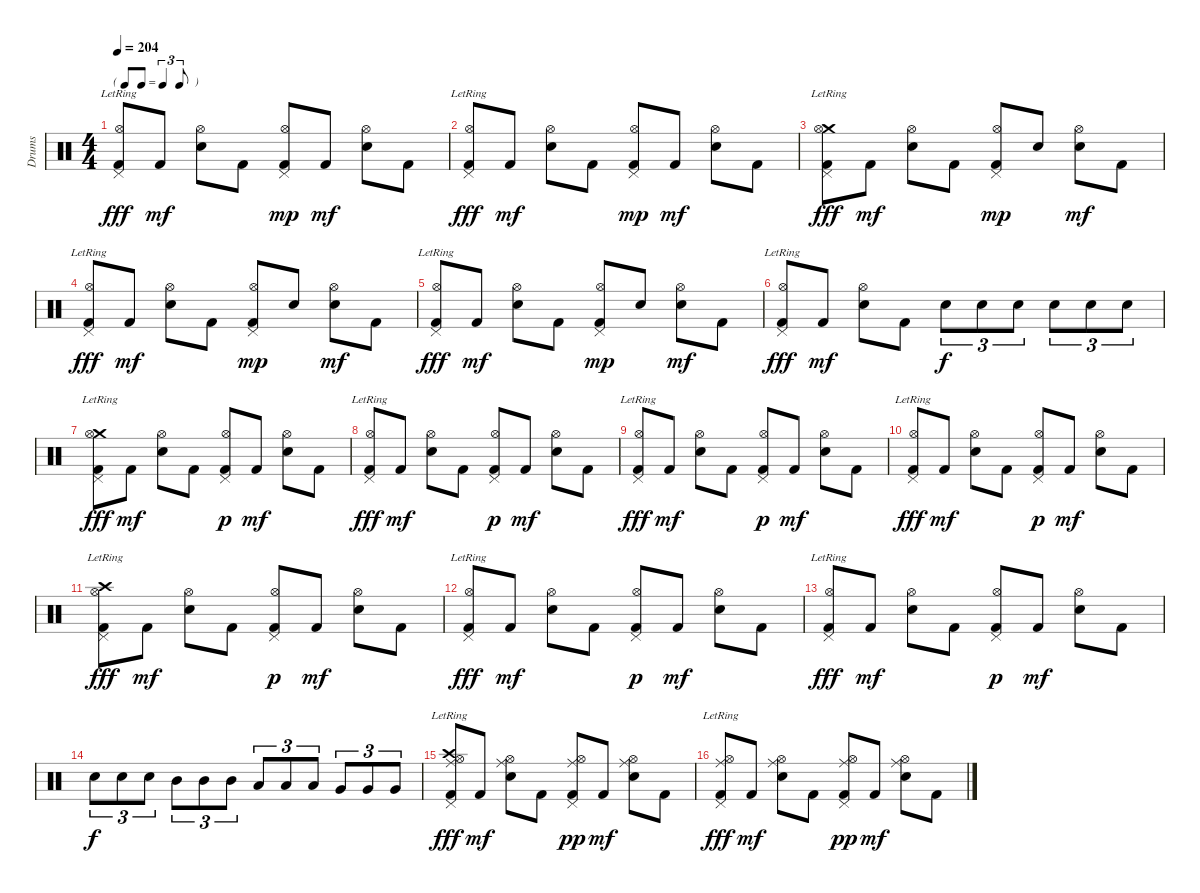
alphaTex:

\track ("Drums" "Drums") {instrument percussion}
\staff {score}
\articulation defaults
\ts (4 4)
\tf triplet8th
\tempo 204
\clef neutral
\ks c
("Pedal Hi-Hat (hit)" "Hi-Hat (open)" "Kick (hit) 2"{lr}).8{dy fff} "Kick (hit) 2".8{dy mf} ("Hi-Hat (open)" "Electric Snare (hit)").8 "Kick (hit) 2".8 ("Pedal Hi-Hat (hit)" "Hi-Hat (open)" "Kick (hit) 2").8{dy mp} "Kick (hit) 2".8{dy mf} ("Hi-Hat (open)" "Electric Snare (hit)").8 "Kick (hit) 2".8 |
("Pedal Hi-Hat (hit)" "Hi-Hat (open)" "Kick (hit) 2"{lr}).8{dy fff} "Kick (hit) 2".8{dy mf} ("Hi-Hat (open)" "Electric Snare (hit)").8 "Kick (hit) 2".8 ("Pedal Hi-Hat (hit)" "Hi-Hat (open)" "Kick (hit) 2").8{dy mp} "Kick (hit) 2".8{dy mf} ("Hi-Hat (open)" "Electric Snare (hit)").8 "Kick (hit) 2".8 |
("Crash medium (hit)" "Pedal Hi-Hat (hit)" "Hi-Hat (open)" "Kick (hit) 2"{lr}).8{dy fff} "Kick (hit) 2".8{dy mf} ("Hi-Hat (open)" "Electric Snare (hit)").8 "Kick (hit) 2".8 ("Pedal Hi-Hat (hit)" "Hi-Hat (open)" "Kick (hit) 2").8{dy mp} "Electric Snare (hit)".8 ("Hi-Hat (open)" "Electric Snare (hit)").8{dy mf} "Kick (hit) 2".8 |
("Pedal Hi-Hat (hit)" "Hi-Hat (open)" "Kick (hit) 2"{lr}).8{dy fff} "Kick (hit) 2".8{dy mf} ("Hi-Hat (open)" "Electric Snare (hit)").8 "Kick (hit) 2".8 ("Pedal Hi-Hat (hit)" "Hi-Hat (open)" "Kick (hit) 2").8{dy mp} "Electric Snare (hit)".8 ("Hi-Hat (open)" "Electric Snare (hit)").8{dy mf} "Kick (hit) 2".8 |
("Pedal Hi-Hat (hit)" "Hi-Hat (open)" "Kick (hit) 2"{lr}).8{dy fff} "Kick (hit) 2".8{dy mf} ("Hi-Hat (open)" "Electric Snare (hit)").8 "Kick (hit) 2".8 ("Pedal Hi-Hat (hit)" "Hi-Hat (open)" "Kick (hit) 2").8{dy mp} "Electric Snare (hit)".8 ("Hi-Hat (open)" "Electric Snare (hit)").8{dy mf} "Kick (hit) 2".8 |
("Pedal Hi-Hat (hit)" "Hi-Hat (open)" "Kick (hit) 2"{lr}).8{dy fff} "Kick (hit) 2".8{dy mf} ("Hi-Hat (open)" "Electric Snare (hit)").8 "Kick (hit) 2".8 "Electric Snare (hit)".8{tu (3 2) dy f} "Electric Snare (hit)".8{tu (3 2)} "Electric Snare (hit)".8{tu (3 2)} "Electric Snare (hit)".8{tu (3 2)} "Electric Snare (hit)".8{tu (3 2)} "Electric Snare (hit)".8{tu (3 2)} |
("Crash medium (hit)" "Pedal Hi-Hat (hit)" "Hi-Hat (open)" "Kick (hit) 2"{lr}).8{dy fff} "Kick (hit) 2".8{dy mf} ("Hi-Hat (open)" "Electric Snare (hit)").8 "Kick (hit) 2".8 ("Pedal Hi-Hat (hit)" "Hi-Hat (open)" "Kick (hit) 2").8{dy p} "Kick (hit) 2".8{dy mf} ("Hi-Hat (open)" "Electric Snare (hit)").8 "Kick (hit) 2".8 |
("Pedal Hi-Hat (hit)" "Hi-Hat (open)" "Kick (hit) 2"{lr}).8{dy fff} "Kick (hit) 2".8{dy mf} ("Hi-Hat (open)" "Electric Snare (hit)").8 "Kick (hit) 2".8 ("Pedal Hi-Hat (hit)" "Hi-Hat (open)" "Kick (hit) 2").8{dy p} "Kick (hit) 2".8{dy mf} ("Hi-Hat (open)" "Electric Snare (hit)").8 "Kick (hit) 2".8 |
("Pedal Hi-Hat (hit)" "Hi-Hat (open)" "Kick (hit) 2"{lr}).8{dy fff} "Kick (hit) 2".8{dy mf} ("Hi-Hat (open)" "Electric Snare (hit)").8 "Kick (hit) 2".8 ("Pedal Hi-Hat (hit)" "Hi-Hat (open)" "Kick (hit) 2").8{dy p} "Kick (hit) 2".8{dy mf} ("Hi-Hat (open)" "Electric Snare (hit)").8 "Kick (hit) 2".8 |
("Pedal Hi-Hat (hit)" "Hi-Hat (open)" "Kick (hit) 2"{lr}).8{dy fff} "Kick (hit) 2".8{dy mf} ("Hi-Hat (open)" "Electric Snare (hit)").8 "Kick (hit) 2".8 ("Pedal Hi-Hat (hit)" "Hi-Hat (open)" "Kick (hit) 2").8{dy p} "Kick (hit) 2".8{dy mf} ("Hi-Hat (open)" "Electric Snare (hit)").8 "Kick (hit) 2".8 |
("Crash high (hit)" "Pedal Hi-Hat (hit)" "Hi-Hat (open)" "Kick (hit) 2"{lr}).8{dy fff} "Kick (hit) 2".8{dy mf} ("Hi-Hat (open)" "Electric Snare (hit)").8 "Kick (hit) 2".8 ("Pedal Hi-Hat (hit)" "Hi-Hat (open)" "Kick (hit) 2").8{dy p} "Kick (hit) 2".8{dy mf} ("Hi-Hat (open)" "Electric Snare (hit)").8 "Kick (hit) 2".8 |
("Pedal Hi-Hat (hit)" "Hi-Hat (open)" "Kick (hit) 2"{lr}).8{dy fff} "Kick (hit) 2".8{dy mf} ("Hi-Hat (open)" "Electric Snare (hit)").8 "Kick (hit) 2".8 ("Pedal Hi-Hat (hit)" "Hi-Hat (open)" "Kick (hit) 2").8{dy p} "Kick (hit) 2".8{dy mf} ("Hi-Hat (open)" "Electric Snare (hit)").8 "Kick (hit) 2".8 |
("Pedal Hi-Hat (hit)" "Hi-Hat (open)" "Kick (hit) 2"{lr}).8{dy fff} "Kick (hit) 2".8{dy mf} ("Hi-Hat (open)" "Electric Snare (hit)").8 "Kick (hit) 2".8 ("Pedal Hi-Hat (hit)" "Hi-Hat (open)" "Kick (hit) 2").8{dy p} "Kick (hit) 2".8{dy mf} ("Hi-Hat (open)" "Electric Snare (hit)").8 "Kick (hit) 2".8 |
"Electric Snare (hit)".8{tu (3 2) dy f} "Electric Snare (hit)".8{tu (3 2)} "Electric Snare (hit)".8{tu (3 2)} "Mid Tom (hit)".8{tu (3 2)} "Mid Tom (hit)".8{tu (3 2)} "Mid Tom (hit)".8{tu (3 2)} "Low Tom (hit)".8{tu (3 2)} "Low Tom (hit)".8{tu (3 2)} "Low Tom (hit)".8{tu (3 2)} "Very Low Tom (hit)".8{tu (3 2)} "Very Low Tom (hit)".8{tu (3 2)} "Very Low Tom (hit)".8{tu (3 2)} |
("Crash high (hit)" "Ride (middle)" "Pedal Hi-Hat (hit)" "Hi-Hat (open)" "Kick (hit) 2"{lr}).8{dy fff} "Kick (hit) 2".8{dy mf} ("Ride (middle)" "Hi-Hat (open)" "Electric Snare (hit)").8 "Kick (hit) 2".8 ("Ride (middle)" "Pedal Hi-Hat (hit)" "Hi-Hat (open)" "Kick (hit) 2").8{dy pp} "Kick (hit) 2".8{dy mf} ("Ride (middle)" "Hi-Hat (open)" "Electric Snare (hit)").8 "Kick (hit) 2".8 |
("Ride (middle)" "Pedal Hi-Hat (hit)" "Hi-Hat (open)" "Kick (hit) 2"{lr}).8{dy fff} "Kick (hit) 2".8{dy mf} ("Ride (middle)" "Hi-Hat (open)" "Electric Snare (hit)").8 "Kick (hit) 2".8 ("Ride (middle)" "Pedal Hi-Hat (hit)" "Hi-Hat (open)" "Kick (hit) 2").8{dy pp} "Kick (hit) 2".8{dy mf} ("Ride (middle)" "Hi-Hat (open)" "Electric Snare (hit)").8 "Kick (hit) 2".8
